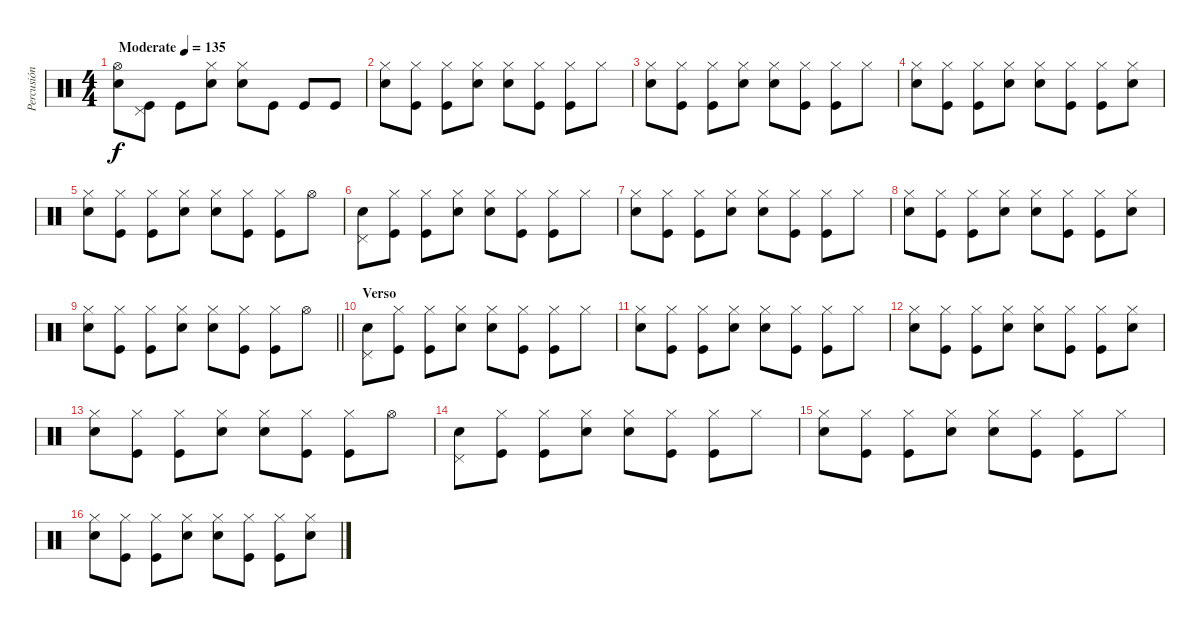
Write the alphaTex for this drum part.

\track ("Percusión" "Percusión") {instrument percussion}
\staff {score}
\articulation defaults
\ts (4 4)
\tempo (135 "Moderate")
\clef neutral
\ks c
("Hi-Hat (open)" "Snare (hit) 2").8{dy f} ("Pedal Hi-Hat (hit)" "Kick (hit)").8 "Kick (hit)".8 ("Hi-Hat (closed)" "Snare (hit) 2").8 ("Hi-Hat (closed)" "Snare (hit) 2").8 "Kick (hit)".8 "Kick (hit)".8 "Kick (hit)".8 |
("Hi-Hat (closed)" "Snare (hit) 2").8 ("Hi-Hat (closed)" "Kick (hit)").8 ("Hi-Hat (closed)" "Kick (hit)").8 ("Hi-Hat (closed)" "Snare (hit) 2").8 ("Hi-Hat (closed)" "Snare (hit) 2").8 ("Hi-Hat (closed)" "Kick (hit)").8 ("Hi-Hat (closed)" "Kick (hit)").8 "Hi-Hat (closed)".8 |
("Hi-Hat (closed)" "Snare (hit) 2").8 ("Hi-Hat (closed)" "Kick (hit)").8 ("Hi-Hat (closed)" "Kick (hit)").8 ("Hi-Hat (closed)" "Snare (hit) 2").8 ("Hi-Hat (closed)" "Snare (hit) 2").8 ("Hi-Hat (closed)" "Kick (hit)").8 ("Hi-Hat (closed)" "Kick (hit)").8 "Hi-Hat (closed)".8 |
("Hi-Hat (closed)" "Snare (hit) 2").8 ("Hi-Hat (closed)" "Kick (hit)").8 ("Hi-Hat (closed)" "Kick (hit)").8 ("Hi-Hat (closed)" "Snare (hit) 2").8 ("Hi-Hat (closed)" "Snare (hit) 2").8 ("Hi-Hat (closed)" "Kick (hit)").8 ("Hi-Hat (closed)" "Kick (hit)").8 ("Hi-Hat (closed)" "Snare (hit) 2").8 |
("Hi-Hat (closed)" "Snare (hit) 2").8 ("Hi-Hat (closed)" "Kick (hit)").8 ("Hi-Hat (closed)" "Kick (hit)").8 ("Hi-Hat (closed)" "Snare (hit) 2").8 ("Hi-Hat (closed)" "Snare (hit) 2").8 ("Hi-Hat (closed)" "Kick (hit)").8 ("Hi-Hat (closed)" "Kick (hit)").8 "Hi-Hat (open)".8 |
("Pedal Hi-Hat (hit)" "Snare (hit) 2").8 ("Hi-Hat (closed)" "Kick (hit)").8 ("Hi-Hat (closed)" "Kick (hit)").8 ("Hi-Hat (closed)" "Snare (hit) 2").8 ("Hi-Hat (closed)" "Snare (hit) 2").8 ("Hi-Hat (closed)" "Kick (hit)").8 ("Hi-Hat (closed)" "Kick (hit)").8 "Hi-Hat (closed)".8 |
("Hi-Hat (closed)" "Snare (hit) 2").8 ("Hi-Hat (closed)" "Kick (hit)").8 ("Hi-Hat (closed)" "Kick (hit)").8 ("Hi-Hat (closed)" "Snare (hit) 2").8 ("Hi-Hat (closed)" "Snare (hit) 2").8 ("Hi-Hat (closed)" "Kick (hit)").8 ("Hi-Hat (closed)" "Kick (hit)").8 "Hi-Hat (closed)".8 |
("Hi-Hat (closed)" "Snare (hit) 2").8 ("Hi-Hat (closed)" "Kick (hit)").8 ("Hi-Hat (closed)" "Kick (hit)").8 ("Hi-Hat (closed)" "Snare (hit) 2").8 ("Hi-Hat (closed)" "Snare (hit) 2").8 ("Hi-Hat (closed)" "Kick (hit)").8 ("Hi-Hat (closed)" "Kick (hit)").8 ("Hi-Hat (closed)" "Snare (hit) 2").8 |
\barLineRight lightlight
("Hi-Hat (closed)" "Snare (hit) 2").8 ("Hi-Hat (closed)" "Kick (hit)").8 ("Hi-Hat (closed)" "Kick (hit)").8 ("Hi-Hat (closed)" "Snare (hit) 2").8 ("Hi-Hat (closed)" "Snare (hit) 2").8 ("Hi-Hat (closed)" "Kick (hit)").8 ("Hi-Hat (closed)" "Kick (hit)").8 "Hi-Hat (open)".8 |
\section ("" "Verso")
("Pedal Hi-Hat (hit)" "Snare (hit) 2").8 ("Hi-Hat (closed)" "Kick (hit)").8 ("Hi-Hat (closed)" "Kick (hit)").8 ("Hi-Hat (closed)" "Snare (hit) 2").8 ("Hi-Hat (closed)" "Snare (hit) 2").8 ("Hi-Hat (closed)" "Kick (hit)").8 ("Hi-Hat (closed)" "Kick (hit)").8 "Hi-Hat (closed)".8 |
("Hi-Hat (closed)" "Snare (hit) 2").8 ("Hi-Hat (closed)" "Kick (hit)").8 ("Hi-Hat (closed)" "Kick (hit)").8 ("Hi-Hat (closed)" "Snare (hit) 2").8 ("Hi-Hat (closed)" "Snare (hit) 2").8 ("Hi-Hat (closed)" "Kick (hit)").8 ("Hi-Hat (closed)" "Kick (hit)").8 "Hi-Hat (closed)".8 |
("Hi-Hat (closed)" "Snare (hit) 2").8 ("Hi-Hat (closed)" "Kick (hit)").8 ("Hi-Hat (closed)" "Kick (hit)").8 ("Hi-Hat (closed)" "Snare (hit) 2").8 ("Hi-Hat (closed)" "Snare (hit) 2").8 ("Hi-Hat (closed)" "Kick (hit)").8 ("Hi-Hat (closed)" "Kick (hit)").8 ("Hi-Hat (closed)" "Snare (hit) 2").8 |
("Hi-Hat (closed)" "Snare (hit) 2").8 ("Hi-Hat (closed)" "Kick (hit)").8 ("Hi-Hat (closed)" "Kick (hit)").8 ("Hi-Hat (closed)" "Snare (hit) 2").8 ("Hi-Hat (closed)" "Snare (hit) 2").8 ("Hi-Hat (closed)" "Kick (hit)").8 ("Hi-Hat (closed)" "Kick (hit)").8 "Hi-Hat (open)".8 |
("Pedal Hi-Hat (hit)" "Snare (hit) 2").8 ("Hi-Hat (closed)" "Kick (hit)").8 ("Hi-Hat (closed)" "Kick (hit)").8 ("Hi-Hat (closed)" "Snare (hit) 2").8 ("Hi-Hat (closed)" "Snare (hit) 2").8 ("Hi-Hat (closed)" "Kick (hit)").8 ("Hi-Hat (closed)" "Kick (hit)").8 "Hi-Hat (closed)".8 |
("Hi-Hat (closed)" "Snare (hit) 2").8 ("Hi-Hat (closed)" "Kick (hit)").8 ("Hi-Hat (closed)" "Kick (hit)").8 ("Hi-Hat (closed)" "Snare (hit) 2").8 ("Hi-Hat (closed)" "Snare (hit) 2").8 ("Hi-Hat (closed)" "Kick (hit)").8 ("Hi-Hat (closed)" "Kick (hit)").8 "Hi-Hat (closed)".8 |
("Hi-Hat (closed)" "Snare (hit) 2").8 ("Hi-Hat (closed)" "Kick (hit)").8 ("Hi-Hat (closed)" "Kick (hit)").8 ("Hi-Hat (closed)" "Snare (hit) 2").8 ("Hi-Hat (closed)" "Snare (hit) 2").8 ("Hi-Hat (closed)" "Kick (hit)").8 ("Hi-Hat (closed)" "Kick (hit)").8 ("Hi-Hat (closed)" "Snare (hit) 2").8
